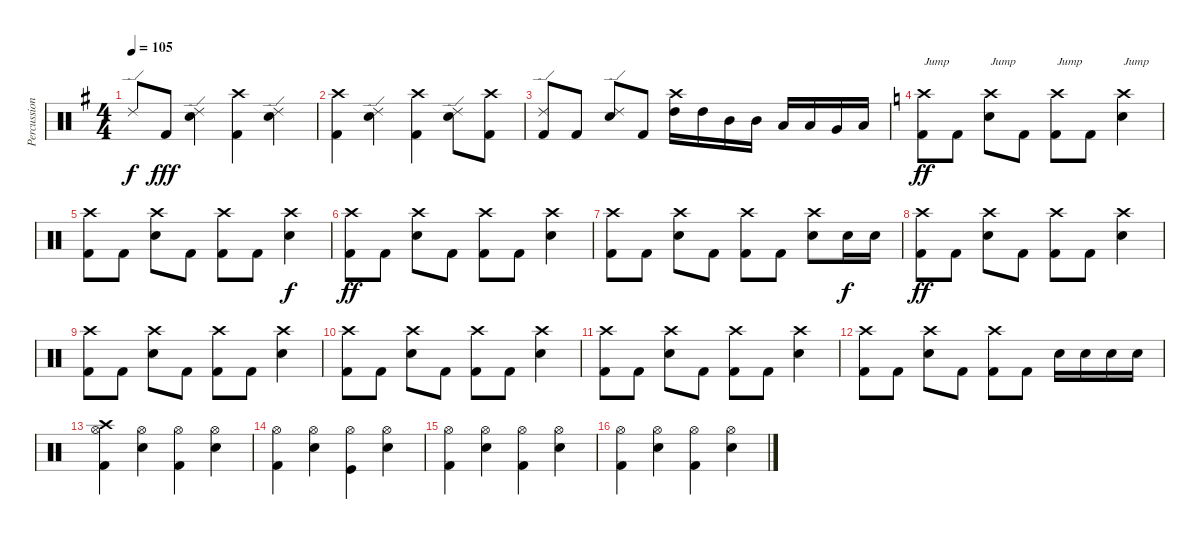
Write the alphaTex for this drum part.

\track ("Percussion" "Percussion") {instrument percussion}
\staff {score}
\articulation defaults
\ts (4 4)
\tempo 105
\clef neutral
\ks g "Ride (edge) 2".8{dy f} "Kick (hit) 2".8{dy fff}
("Ride (edge) 2" "Electric Snare (hit)").4 ("Crash high (hit)" "Kick (hit) 2").4 ("Ride (edge) 2" "Electric Snare (hit)").4 |
("Crash high (hit)" "Kick (hit) 2").4 ("Ride (edge) 2" "Electric Snare (hit)").4 ("Crash high (hit)" "Kick (hit) 2").4 ("Ride (edge) 2" "Electric Snare (hit)").8 ("Crash high (hit)" "Kick (hit) 2").8 |
("Ride (edge) 2" "Kick (hit) 2").8 "Kick (hit) 2".8 ("Ride (edge) 2" "Electric Snare (hit)").8 "Kick (hit) 2".8 ("Crash high (hit)" "High Tom (hit)").16 "High Tom (hit)".16 "Mid Tom (hit)".16 "Mid Tom (hit)".16 "Low Tom (hit)".16 "Low Tom (hit)".16 "Very Low Tom (hit)".16 "Low Floor Tom (hit)".16 |
\ks c
("Crash high (hit)" "Kick (hit) 2").8{txt "Jump" dy ff} "Kick (hit) 2".8 ("Crash high (hit)" "Electric Snare (hit)").8{txt "Jump"} "Kick (hit) 2".8 ("Crash high (hit)" "Kick (hit) 2").8{txt "Jump"} "Kick (hit) 2".8 ("Crash high (hit)" "Electric Snare (hit)").4{txt "Jump"} |
("Crash high (hit)" "Kick (hit) 2").8 "Kick (hit) 2".8 ("Crash high (hit)" "Electric Snare (hit)").8 "Kick (hit) 2".8 ("Crash high (hit)" "Kick (hit) 2").8 "Kick (hit) 2".8 ("Crash high (hit)" "Electric Snare (hit)").4{dy f} |
("Crash high (hit)" "Kick (hit) 2").8{dy ff} "Kick (hit) 2".8 ("Crash high (hit)" "Electric Snare (hit)").8 "Kick (hit) 2".8 ("Crash high (hit)" "Kick (hit) 2").8 "Kick (hit) 2".8 ("Crash high (hit)" "Electric Snare (hit)").4 |
("Crash high (hit)" "Kick (hit) 2").8 "Kick (hit) 2".8 ("Crash high (hit)" "Electric Snare (hit)").8 "Kick (hit) 2".8 ("Crash high (hit)" "Kick (hit) 2").8 "Kick (hit) 2".8 ("Crash high (hit)" "Electric Snare (hit)").8 "Electric Snare (hit)".16{dy f} "Electric Snare (hit)".16 |
("Crash high (hit)" "Kick (hit) 2").8{dy ff} "Kick (hit) 2".8 ("Crash high (hit)" "Electric Snare (hit)").8 "Kick (hit) 2".8 ("Crash high (hit)" "Kick (hit) 2").8 "Kick (hit) 2".8 ("Crash high (hit)" "Electric Snare (hit)").4 |
("Crash high (hit)" "Kick (hit) 2").8 "Kick (hit) 2".8 ("Crash high (hit)" "Electric Snare (hit)").8 "Kick (hit) 2".8 ("Crash high (hit)" "Kick (hit) 2").8 "Kick (hit) 2".8 ("Crash high (hit)" "Electric Snare (hit)").4 |
("Crash high (hit)" "Kick (hit) 2").8 "Kick (hit) 2".8 ("Crash high (hit)" "Electric Snare (hit)").8 "Kick (hit) 2".8 ("Crash high (hit)" "Kick (hit) 2").8 "Kick (hit) 2".8 ("Crash high (hit)" "Electric Snare (hit)").4 |
("Crash high (hit)" "Kick (hit) 2").8 "Kick (hit) 2".8 ("Crash high (hit)" "Electric Snare (hit)").8 "Kick (hit) 2".8 ("Crash high (hit)" "Kick (hit) 2").8 "Kick (hit) 2".8 ("Crash high (hit)" "Electric Snare (hit)").4 |
("Crash high (hit)" "Kick (hit) 2").8 "Kick (hit) 2".8 ("Crash high (hit)" "Electric Snare (hit)").8 "Kick (hit) 2".8 ("Crash high (hit)" "Kick (hit) 2").8 "Kick (hit) 2".8 "Electric Snare (hit)".16 "Electric Snare (hit)".16 "Electric Snare (hit)".16 "Electric Snare (hit)".16 |
("Crash high (hit)" "Hi-Hat (open)" "Kick (hit) 2").4 ("Hi-Hat (open)" "Electric Snare (hit)").4 ("Hi-Hat (open)" "Kick (hit) 2").4 ("Hi-Hat (open)" "Electric Snare (hit)").4 |
("Hi-Hat (open)" "Kick (hit) 2").4 ("Hi-Hat (open)" "Electric Snare (hit)").4 ("Hi-Hat (open)" "Kick (hit)").4 ("Hi-Hat (open)" "Electric Snare (hit)").4 |
("Hi-Hat (open)" "Kick (hit) 2").4 ("Hi-Hat (open)" "Electric Snare (hit)").4 ("Hi-Hat (open)" "Kick (hit) 2").4 ("Hi-Hat (open)" "Electric Snare (hit)").4 |
("Hi-Hat (open)" "Kick (hit) 2").4 ("Hi-Hat (open)" "Electric Snare (hit)").4 ("Hi-Hat (open)" "Kick (hit) 2").4 ("Hi-Hat (open)" "Electric Snare (hit)").4
